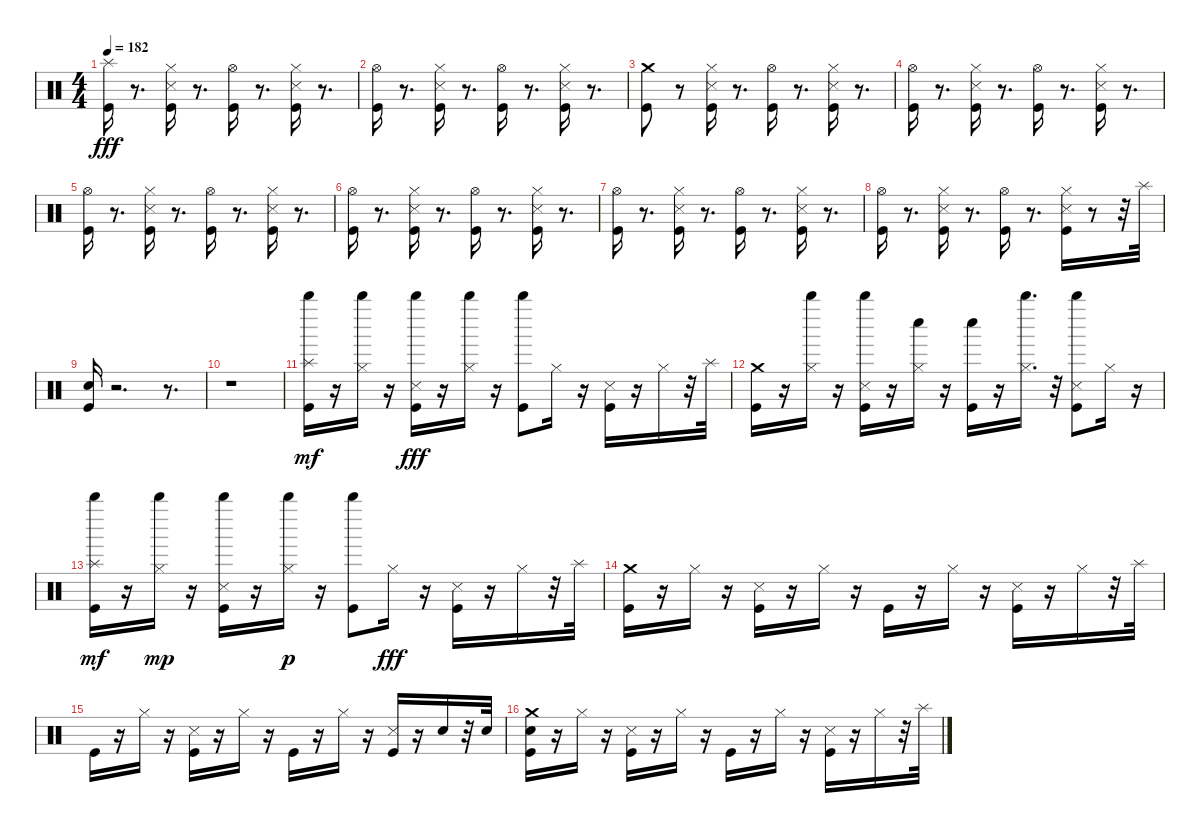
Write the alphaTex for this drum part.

\track "" {instrument percussion}
\staff {score}
\articulation defaults
\ts (4 4)
\tempo 182
\clef neutral
\ks c
("Splash (hit)" "Kick (hit)").16{dy fff} r.8{d} ("Kick (hit)" "Snare (side stick) 3" "Hi-Hat (closed)").16 r.8{d} ("Kick (hit)" "Hi-Hat (open)").16 r.8{d} ("Kick (hit)" "Snare (side stick) 3" "Hi-Hat (closed)").16 r.8{d} |
("Kick (hit)" "Hi-Hat (open)").16 r.8{d} ("Kick (hit)" "Snare (side stick) 3" "Hi-Hat (closed)").16 r.8{d} ("Kick (hit)" "Hi-Hat (open)").16 r.8{d} ("Kick (hit)" "Snare (side stick) 3" "Hi-Hat (closed)").16 r.8{d} |
("Kick (hit)" "Crash medium (hit)").8 r.8 ("Kick (hit)" "Snare (side stick) 3" "Hi-Hat (closed)").16 r.8{d} ("Kick (hit)" "Hi-Hat (open)").16 r.8{d} ("Kick (hit)" "Snare (side stick) 3" "Hi-Hat (closed)").16 r.8{d} |
("Kick (hit)" "Hi-Hat (open)").16 r.8{d} ("Kick (hit)" "Snare (side stick) 3" "Hi-Hat (closed)").16 r.8{d} ("Kick (hit)" "Hi-Hat (open)").16 r.8{d} ("Kick (hit)" "Snare (side stick) 3" "Hi-Hat (closed)").16 r.8{d} |
("Kick (hit)" "Hi-Hat (open)").16 r.8{d} ("Kick (hit)" "Snare (side stick) 3" "Hi-Hat (closed)").16 r.8{d} ("Kick (hit)" "Hi-Hat (open)").16 r.8{d} ("Kick (hit)" "Snare (side stick) 3" "Hi-Hat (closed)").16 r.8{d} |
("Kick (hit)" "Hi-Hat (open)").16 r.8{d} ("Kick (hit)" "Snare (side stick) 3" "Hi-Hat (closed)").16 r.8{d} ("Kick (hit)" "Hi-Hat (open)").16 r.8{d} ("Kick (hit)" "Snare (side stick) 3" "Hi-Hat (closed)").16 r.8{d} |
("Kick (hit)" "Hi-Hat (open)").16 r.8{d} ("Kick (hit)" "Snare (side stick) 3" "Hi-Hat (closed)").16 r.8{d} ("Kick (hit)" "Hi-Hat (open)").16 r.8{d} ("Kick (hit)" "Snare (side stick) 3" "Hi-Hat (closed)").16 r.8{d} |
("Kick (hit)" "Hi-Hat (open)").16 r.8{d} ("Kick (hit)" "Snare (side stick) 3" "Hi-Hat (closed)").16 r.8{d} ("Kick (hit)" "Hi-Hat (open)").16 r.8{d} ("Kick (hit)" "Snare (side stick) 3" "Hi-Hat (closed)").16 r.8 r.32 "Splash (hit)".32 |
("Kick (hit)" "Electric Snare (hit)").16 r.2{d} r.8{d} |
r.1 |
("Splash (hit)" "Kick (hit)" "Whistle high (hit)").16{dy mf} r.16 ("Hi-Hat (closed)" "Whistle high (hit)").16 r.16 ("Kick (hit)" "Snare (side stick) 3" "Whistle high (hit)").16{dy fff} r.16 ("Hi-Hat (closed)" "Whistle high (hit)").16 r.16 ("Kick (hit)" "Whistle high (hit)").8 "Hi-Hat (closed)".16 r.16 ("Kick (hit)" "Snare (side stick) 3").16 r.16 "Hi-Hat (closed)".16 r.32 "Splash (hit)".32 |
("Crash medium (hit)" "Kick (hit)").16 r.16 ("Hi-Hat (closed)" "Whistle high (hit)").16 r.16 ("Kick (hit)" "Snare (side stick) 3" "Whistle high (hit)").16 r.16 ("Hi-Hat (closed)" "Whistle low (hit)").16 r.16 ("Kick (hit)" "Whistle low (hit)").16 r.16 ("Hi-Hat (closed)" "Whistle high (hit)").16{d} r.32 ("Kick (hit)" "Snare (side stick) 3" "Whistle high (hit)").8 "Hi-Hat (closed)".16 r.16 |
("Kick (hit)" "Splash (hit)" "Whistle high (hit)").16{dy mf} r.16 ("Hi-Hat (closed)" "Whistle high (hit)").16{dy mp} r.16 ("Kick (hit)" "Snare (side stick) 3" "Whistle high (hit)").16 r.16 ("Hi-Hat (closed)" "Whistle high (hit)").16{dy p} r.16 ("Kick (hit)" "Whistle high (hit)").8 "Hi-Hat (closed)".16{dy fff} r.16 ("Kick (hit)" "Snare (side stick) 3").16 r.16 "Hi-Hat (closed)".16 r.32 "Splash (hit)".32 |
("Crash medium (hit)" "Kick (hit)").16 r.16 "Hi-Hat (closed)".16 r.16 ("Kick (hit)" "Snare (side stick) 3").16 r.16 "Hi-Hat (closed)".16 r.16 "Kick (hit)".16 r.16 "Hi-Hat (closed)".16 r.16 ("Kick (hit)" "Snare (side stick) 3").16 r.16 "Hi-Hat (closed)".16 r.32 "Splash (hit)".32 |
"Kick (hit)".16 r.16 "Hi-Hat (closed)".16 r.16 ("Kick (hit)" "Snare (side stick) 3").16 r.16 "Hi-Hat (closed)".16 r.16 "Kick (hit)".16 r.16 "Hi-Hat (closed)".16 r.16 ("Kick (hit)" "Snare (side stick) 3").16 r.16 "Electric Snare (hit)".16 r.32 "Electric Snare (hit)".32 |
("Crash medium (hit)" "Kick (hit)" "Electric Snare (hit)").16 r.16 "Hi-Hat (closed)".16 r.16 ("Kick (hit)" "Snare (side stick) 3").16 r.16 "Hi-Hat (closed)".16 r.16 "Kick (hit)".16 r.16 "Hi-Hat (closed)".16 r.16 ("Kick (hit)" "Snare (side stick) 3").16 r.16 "Hi-Hat (closed)".16 r.32 "Splash (hit)".32
